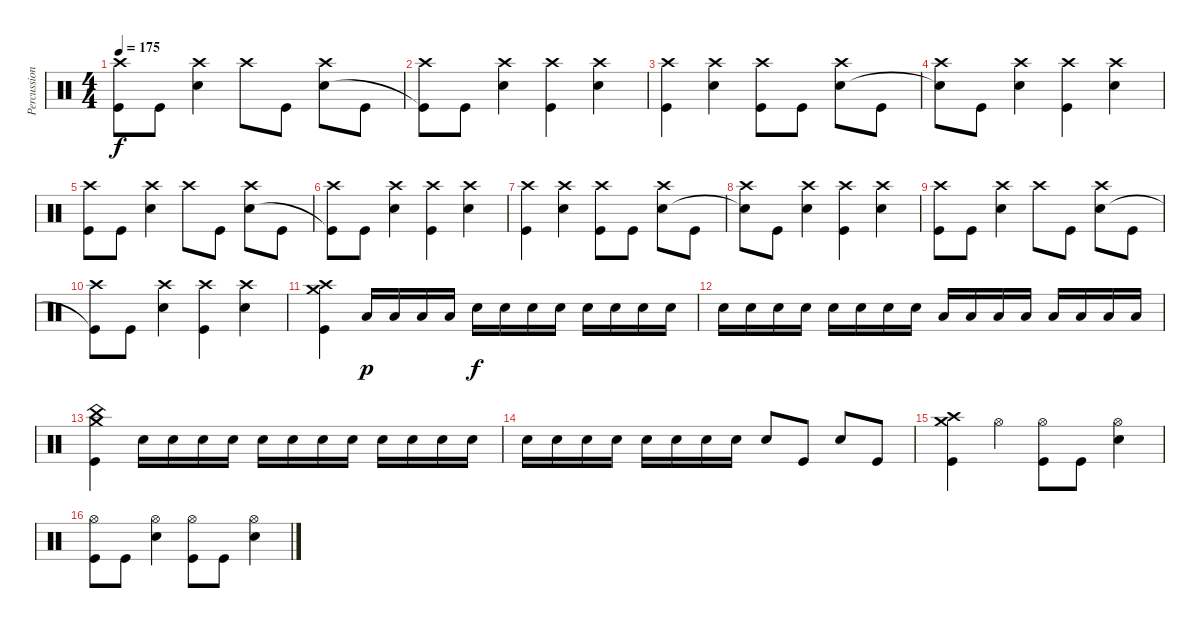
\track ("Percussion" "Percussion") {instrument percussion}
\staff {score}
\articulation defaults
\ts (4 4)
\tempo 175
\clef neutral
\ks c
("Crash high (hit)" "Kick (hit)").8{dy f} "Kick (hit)".8 ("Crash high (hit)" "Snare (hit) 2").4 "Crash high (hit)".8 "Kick (hit)".8 ("Crash high (hit)" "Snare (hit) 2").8 "Kick (hit)".8 |
("Crash high (hit)" "Kick (hit)"{t}).8 "Kick (hit)".8 ("Crash high (hit)" "Snare (hit) 2").4 ("Crash high (hit)" "Kick (hit)").4 ("Crash high (hit)" "Snare (hit) 2").4 |
("Crash high (hit)" "Kick (hit)").4 ("Crash high (hit)" "Snare (hit) 2").4 ("Crash high (hit)" "Kick (hit)").8 "Kick (hit)".8 ("Crash high (hit)" "Snare (hit) 2").8 "Kick (hit)".8 |
("Crash high (hit)" "Snare (hit)"{t}).8 "Kick (hit)".8 ("Crash high (hit)" "Snare (hit) 2").4 ("Crash high (hit)" "Kick (hit)").4 ("Crash high (hit)" "Snare (hit) 2").4 |
("Crash high (hit)" "Kick (hit)").8 "Kick (hit)".8 ("Crash high (hit)" "Snare (hit) 2").4 "Crash high (hit)".8 "Kick (hit)".8 ("Crash high (hit)" "Snare (hit) 2").8 "Kick (hit)".8 |
("Crash high (hit)" "Kick (hit)"{t}).8 "Kick (hit)".8 ("Crash high (hit)" "Snare (hit) 2").4 ("Crash high (hit)" "Kick (hit)").4 ("Crash high (hit)" "Snare (hit) 2").4 |
("Crash high (hit)" "Kick (hit)").4 ("Crash high (hit)" "Snare (hit) 2").4 ("Crash high (hit)" "Kick (hit)").8 "Kick (hit)".8 ("Crash high (hit)" "Snare (hit) 2").8 "Kick (hit)".8 |
("Crash high (hit)" "Snare (hit)"{t}).8 "Kick (hit)".8 ("Crash high (hit)" "Snare (hit) 2").4 ("Crash high (hit)" "Kick (hit)").4 ("Crash high (hit)" "Snare (hit) 2").4 |
("Crash high (hit)" "Kick (hit)").8 "Kick (hit)".8 ("Crash high (hit)" "Snare (hit) 2").4 "Crash high (hit)".8 "Kick (hit)".8 ("Crash high (hit)" "Snare (hit) 2").8 "Kick (hit)".8 |
("Crash high (hit)" "Kick (hit)"{t}).8 "Kick (hit)".8 ("Crash high (hit)" "Snare (hit) 2").4 ("Crash high (hit)" "Kick (hit)").4 ("Crash high (hit)" "Snare (hit) 2").4 |
("Crash medium (hit)" "Crash high (hit)" "Kick (hit)").4 "Low Tom (hit)".16{dy p} "Low Tom (hit)".16 "Low Tom (hit)".16 "Low Tom (hit)".16 "Snare (hit) 2".16{dy f} "Snare (hit) 2".16 "Snare (hit) 2".16 "Snare (hit) 2".16 "Snare (hit) 2".16 "Snare (hit) 2".16 "Snare (hit) 2".16 "Snare (hit) 2".16 |
"Snare (hit) 2".16 "Snare (hit) 2".16 "Snare (hit) 2".16 "Snare (hit) 2".16 "Snare (hit) 2".16 "Snare (hit) 2".16 "Snare (hit) 2".16 "Snare (hit) 2".16 "Low Tom (hit)".16 "Low Tom (hit)".16 "Low Tom (hit)".16 "Low Tom (hit)".16 "Low Floor Tom (hit)".16 "Low Floor Tom (hit)".16 "Low Floor Tom (hit)".16 "Low Floor Tom (hit)".16 |
("China (hit)" "Crash medium (hit)" "Kick (hit)").4 "Snare (hit) 2".16 "Snare (hit) 2".16 "Snare (hit) 2".16 "Snare (hit) 2".16 "Snare (hit) 2".16 "Snare (hit) 2".16 "Snare (hit) 2".16 "Snare (hit) 2".16 "Snare (hit) 2".16 "Snare (hit) 2".16 "Snare (hit) 2".16 "Snare (hit) 2".16 |
"Snare (hit) 2".16 "Snare (hit) 2".16 "Snare (hit) 2".16 "Snare (hit) 2".16 "Snare (hit) 2".16 "Snare (hit) 2".16 "Snare (hit) 2".16 "Snare (hit) 2".16 "Snare (hit) 2".8 "Kick (hit)".8 "Snare (hit) 2".8 "Kick (hit)".8 |
("Crash high (hit)" "Crash medium (hit)" "Kick (hit)").4 "Hi-Hat (open)".4 ("Hi-Hat (open)" "Kick (hit)").8 "Kick (hit)".8 ("Hi-Hat (open)" "Snare (hit) 2").4 |
("Hi-Hat (open)" "Kick (hit)").8 "Kick (hit)".8 ("Hi-Hat (open)" "Snare (hit) 2").4 ("Hi-Hat (open)" "Kick (hit)").8 "Kick (hit)".8 ("Hi-Hat (open)" "Snare (hit) 2").4
